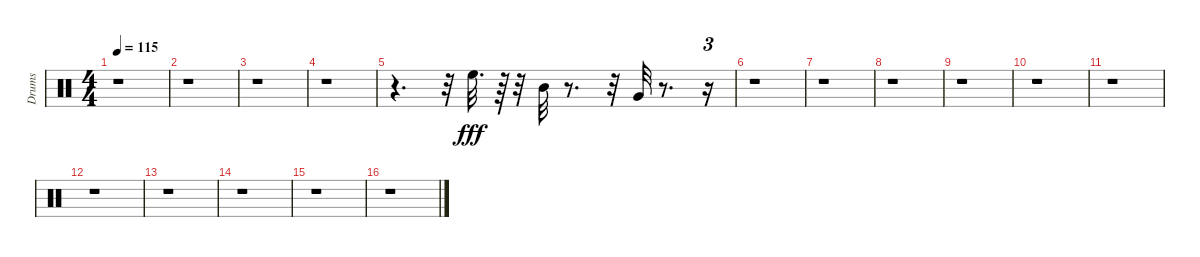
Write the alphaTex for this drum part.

\track ("Drums" "Drums") {instrument percussion}
\staff {score}
\articulation defaults
\ts (4 4)
\tempo 115
\clef neutral
\ks c
r.1{dy fff} |
r.1 |
r.1 |
r.1 |
r.4{d} r.32 "High Floor Tom (hit)".32{d} r.64 r.32 "Mid Tom (hit)".32 r.8{d} r.32 "Very Low Tom (hit)".32 r.8{d} r.16{tu (3 2)} |
r.1 |
r.1 |
r.1 |
r.1 |
r.1 |
r.1 |
r.1 |
r.1 |
r.1 |
r.1 |
r.1
